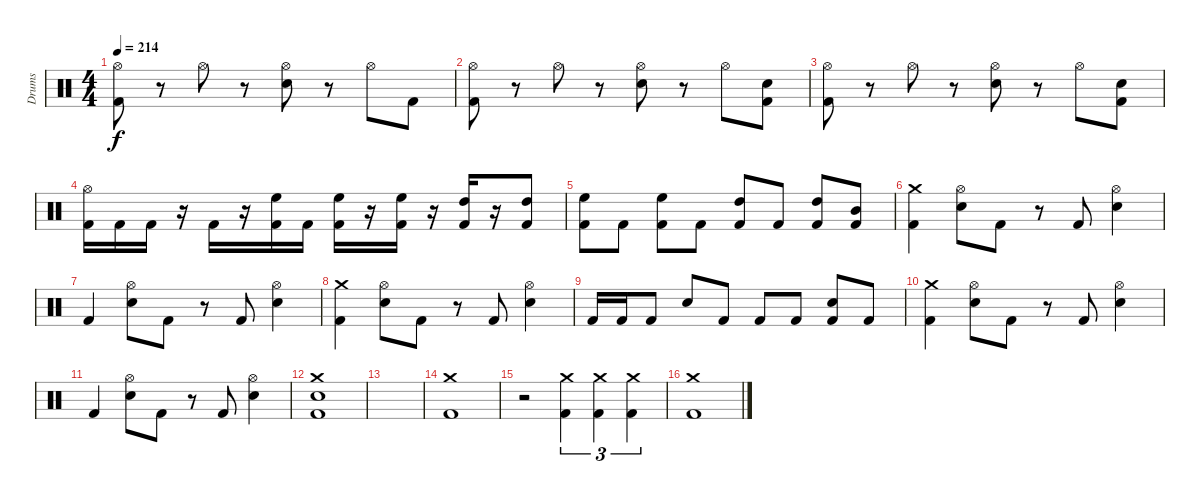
\track ("Drums" "Drums") {instrument percussion}
\staff {score}
\articulation defaults
\ts (4 4)
\tempo 214
\clef neutral
\ks c
("Kick (hit) 2" "Hi-Hat (open)").8{dy f} r.8 "Hi-Hat (open)".8 r.8 ("Snare (hit) 2" "Hi-Hat (open)").8 r.8 "Hi-Hat (open)".8 "Kick (hit) 2".8 |
("Kick (hit) 2" "Hi-Hat (open)").8 r.8 "Hi-Hat (open)".8 r.8 ("Snare (hit) 2" "Hi-Hat (open)").8 r.8 "Hi-Hat (open)".8 ("Snare (hit) 2" "Kick (hit) 2").8 |
("Kick (hit) 2" "Hi-Hat (open)").8 r.8 "Hi-Hat (open)".8 r.8 ("Snare (hit) 2" "Hi-Hat (open)").8 r.8 "Hi-Hat (open)".8 ("Snare (hit) 2" "Kick (hit) 2").8 |
("Kick (hit) 2" "Hi-Hat (open)").16 "Kick (hit) 2".16 "Kick (hit) 2".16 r.16 "Kick (hit) 2".16 r.16 ("Kick (hit) 2" "High Floor Tom (hit)").16 "Kick (hit) 2".16 ("Kick (hit) 2" "High Floor Tom (hit)").16 r.16 ("Kick (hit) 2" "High Floor Tom (hit)").16 r.16 ("Kick (hit) 2" "High Tom (hit)").16 r.16 ("Kick (hit) 2" "High Tom (hit)").8 |
("Kick (hit) 2" "High Floor Tom (hit)").8 "Kick (hit) 2".8 ("Kick (hit) 2" "High Floor Tom (hit)").8 "Kick (hit) 2".8 ("Kick (hit) 2" "High Tom (hit)").8 "Kick (hit) 2".8 ("Kick (hit) 2" "High Tom (hit)").8 ("Kick (hit) 2" "Mid Tom (hit)").8 |
("Crash medium (hit)" "Kick (hit) 2").4 ("Snare (hit) 2" "Hi-Hat (open)").8 "Kick (hit) 2".8 r.8 "Kick (hit) 2".8 ("Snare (hit) 2" "Hi-Hat (open)").4 |
"Kick (hit) 2".4 ("Snare (hit) 2" "Hi-Hat (open)").8 "Kick (hit) 2".8 r.8 "Kick (hit) 2".8 ("Snare (hit) 2" "Hi-Hat (open)").4 |
("Crash medium (hit)" "Kick (hit) 2").4 ("Snare (hit) 2" "Hi-Hat (open)").8 "Kick (hit) 2".8 r.8 "Kick (hit) 2".8 ("Snare (hit) 2" "Hi-Hat (open)").4 |
"Kick (hit) 2".16 "Kick (hit) 2".16 "Kick (hit) 2".8 "Snare (hit) 2".8 "Kick (hit) 2".8 "Kick (hit) 2".8 "Kick (hit) 2".8 ("Kick (hit) 2" "Snare (hit) 2").8 "Kick (hit) 2".8 |
("Crash medium (hit)" "Kick (hit) 2").4 ("Snare (hit) 2" "Hi-Hat (open)").8 "Kick (hit) 2".8 r.8 "Kick (hit) 2".8 ("Snare (hit) 2" "Hi-Hat (open)").4 |
"Kick (hit) 2".4 ("Snare (hit) 2" "Hi-Hat (open)").8 "Kick (hit) 2".8 r.8 "Kick (hit) 2".8 ("Snare (hit) 2" "Hi-Hat (open)").4 |
("Crash medium (hit)" "Snare (hit) 2" "Kick (hit) 2").1 |
|
("Kick (hit) 2" "Crash medium (hit)").1 |
r.2 ("Kick (hit) 2" "Crash medium (hit)").4{tu (3 2)} ("Kick (hit) 2" "Crash medium (hit)").4{tu (3 2)} ("Kick (hit) 2" "Crash medium (hit)").4{tu (3 2)} |
("Kick (hit) 2" "Crash medium (hit)").1
